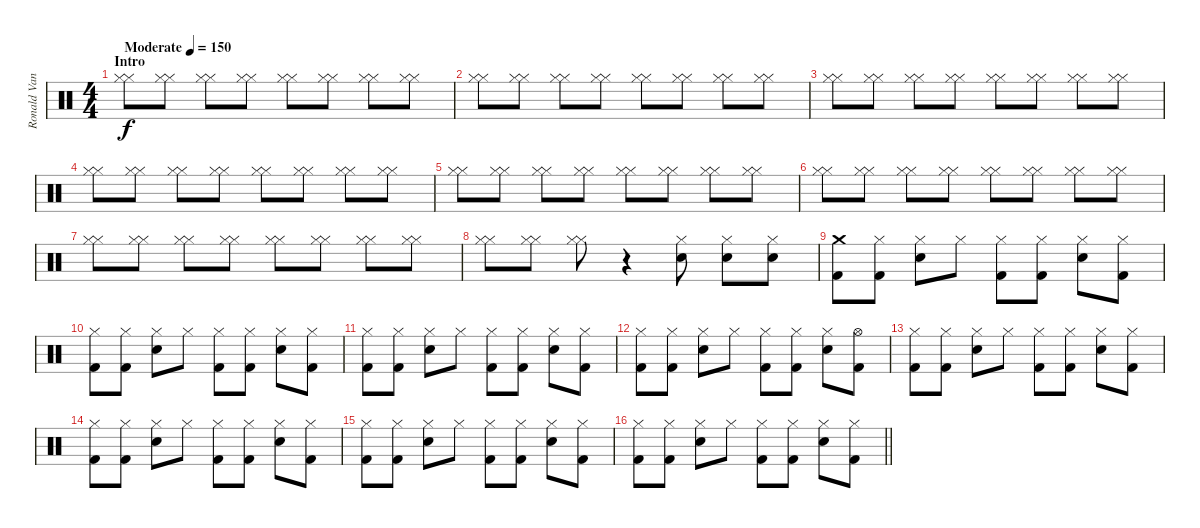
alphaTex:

\track ("Ronald Vanucci Jr (Drums)" "Ronald Van") {instrument percussion}
\staff {score}
\articulation defaults
\ts (4 4)
\section ("" "Intro")
\tempo (150 "Moderate")
\clef neutral
\ks c
("Hi-Hat (closed)" "Hi-Hat (closed)").8{dy f volume 3} ("Hi-Hat (closed)" "Hi-Hat (closed)").8 ("Hi-Hat (closed)" "Hi-Hat (closed)").8 ("Hi-Hat (closed)" "Hi-Hat (closed)").8 ("Hi-Hat (closed)" "Hi-Hat (closed)").8 ("Hi-Hat (closed)" "Hi-Hat (closed)").8 ("Hi-Hat (closed)" "Hi-Hat (closed)").8 ("Hi-Hat (closed)" "Hi-Hat (closed)").8 |
("Hi-Hat (closed)" "Hi-Hat (closed)").8{volume 6} ("Hi-Hat (closed)" "Hi-Hat (closed)").8 ("Hi-Hat (closed)" "Hi-Hat (closed)").8 ("Hi-Hat (closed)" "Hi-Hat (closed)").8 ("Hi-Hat (closed)" "Hi-Hat (closed)").8 ("Hi-Hat (closed)" "Hi-Hat (closed)").8 ("Hi-Hat (closed)" "Hi-Hat (closed)").8 ("Hi-Hat (closed)" "Hi-Hat (closed)").8 |
("Hi-Hat (closed)" "Hi-Hat (closed)").8{volume 8} ("Hi-Hat (closed)" "Hi-Hat (closed)").8 ("Hi-Hat (closed)" "Hi-Hat (closed)").8 ("Hi-Hat (closed)" "Hi-Hat (closed)").8 ("Hi-Hat (closed)" "Hi-Hat (closed)").8 ("Hi-Hat (closed)" "Hi-Hat (closed)").8 ("Hi-Hat (closed)" "Hi-Hat (closed)").8 ("Hi-Hat (closed)" "Hi-Hat (closed)").8 |
("Hi-Hat (closed)" "Hi-Hat (closed)").8{volume 10} ("Hi-Hat (closed)" "Hi-Hat (closed)").8 ("Hi-Hat (closed)" "Hi-Hat (closed)").8 ("Hi-Hat (closed)" "Hi-Hat (closed)").8 ("Hi-Hat (closed)" "Hi-Hat (closed)").8 ("Hi-Hat (closed)" "Hi-Hat (closed)").8 ("Hi-Hat (closed)" "Hi-Hat (closed)").8 ("Hi-Hat (closed)" "Hi-Hat (closed)").8 |
("Hi-Hat (closed)" "Hi-Hat (closed)").8{volume 12} ("Hi-Hat (closed)" "Hi-Hat (closed)").8 ("Hi-Hat (closed)" "Hi-Hat (closed)").8 ("Hi-Hat (closed)" "Hi-Hat (closed)").8 ("Hi-Hat (closed)" "Hi-Hat (closed)").8 ("Hi-Hat (closed)" "Hi-Hat (closed)").8 ("Hi-Hat (closed)" "Hi-Hat (closed)").8 ("Hi-Hat (closed)" "Hi-Hat (closed)").8 |
("Hi-Hat (closed)" "Hi-Hat (closed)").8{volume 15} ("Hi-Hat (closed)" "Hi-Hat (closed)").8 ("Hi-Hat (closed)" "Hi-Hat (closed)").8 ("Hi-Hat (closed)" "Hi-Hat (closed)").8 ("Hi-Hat (closed)" "Hi-Hat (closed)").8 ("Hi-Hat (closed)" "Hi-Hat (closed)").8 ("Hi-Hat (closed)" "Hi-Hat (closed)").8 ("Hi-Hat (closed)" "Hi-Hat (closed)").8 |
("Hi-Hat (closed)" "Hi-Hat (closed)").8 ("Hi-Hat (closed)" "Hi-Hat (closed)").8 ("Hi-Hat (closed)" "Hi-Hat (closed)").8 ("Hi-Hat (closed)" "Hi-Hat (closed)").8 ("Hi-Hat (closed)" "Hi-Hat (closed)").8 ("Hi-Hat (closed)" "Hi-Hat (closed)").8 ("Hi-Hat (closed)" "Hi-Hat (closed)").8 ("Hi-Hat (closed)" "Hi-Hat (closed)").8 |
("Hi-Hat (closed)" "Hi-Hat (closed)").8 ("Hi-Hat (closed)" "Hi-Hat (closed)").8 ("Hi-Hat (closed)" "Hi-Hat (closed)").8 r.4 ("Hi-Hat (closed)" "Snare (hit) 2").8 ("Hi-Hat (closed)" "Snare (hit) 2").8 ("Hi-Hat (closed)" "Snare (hit) 2").8 |
("Crash medium (hit)" "Kick (hit) 2").8 ("Hi-Hat (closed)" "Kick (hit) 2").8 ("Hi-Hat (closed)" "Snare (hit) 2").8 "Hi-Hat (closed)".8 ("Hi-Hat (closed)" "Kick (hit) 2").8 ("Hi-Hat (closed)" "Kick (hit) 2").8 ("Hi-Hat (closed)" "Snare (hit) 2").8 ("Hi-Hat (closed)" "Kick (hit) 2").8 |
("Hi-Hat (closed)" "Kick (hit) 2").8 ("Hi-Hat (closed)" "Kick (hit) 2").8 ("Hi-Hat (closed)" "Snare (hit) 2").8 "Hi-Hat (closed)".8 ("Hi-Hat (closed)" "Kick (hit) 2").8 ("Hi-Hat (closed)" "Kick (hit) 2").8 ("Hi-Hat (closed)" "Snare (hit) 2").8 ("Hi-Hat (closed)" "Kick (hit) 2").8 |
("Hi-Hat (closed)" "Kick (hit) 2").8 ("Hi-Hat (closed)" "Kick (hit) 2").8 ("Hi-Hat (closed)" "Snare (hit) 2").8 "Hi-Hat (closed)".8 ("Hi-Hat (closed)" "Kick (hit) 2").8 ("Hi-Hat (closed)" "Kick (hit) 2").8 ("Hi-Hat (closed)" "Snare (hit) 2").8 ("Hi-Hat (closed)" "Kick (hit) 2").8 |
("Hi-Hat (closed)" "Kick (hit) 2").8 ("Hi-Hat (closed)" "Kick (hit) 2").8 ("Hi-Hat (closed)" "Snare (hit) 2").8 "Hi-Hat (closed)".8 ("Hi-Hat (closed)" "Kick (hit) 2").8 ("Hi-Hat (closed)" "Kick (hit) 2").8 ("Hi-Hat (closed)" "Snare (hit) 2").8 ("Hi-Hat (open)" "Kick (hit) 2").8 |
("Hi-Hat (closed)" "Kick (hit) 2").8 ("Hi-Hat (closed)" "Kick (hit) 2").8 ("Hi-Hat (closed)" "Snare (hit) 2").8 "Hi-Hat (closed)".8 ("Hi-Hat (closed)" "Kick (hit) 2").8 ("Hi-Hat (closed)" "Kick (hit) 2").8 ("Hi-Hat (closed)" "Snare (hit) 2").8 ("Hi-Hat (closed)" "Kick (hit) 2").8 |
("Hi-Hat (closed)" "Kick (hit) 2").8 ("Hi-Hat (closed)" "Kick (hit) 2").8 ("Hi-Hat (closed)" "Snare (hit) 2").8 "Hi-Hat (closed)".8 ("Hi-Hat (closed)" "Kick (hit) 2").8 ("Hi-Hat (closed)" "Kick (hit) 2").8 ("Hi-Hat (closed)" "Snare (hit) 2").8 ("Hi-Hat (closed)" "Kick (hit) 2").8 |
("Hi-Hat (closed)" "Kick (hit) 2").8 ("Hi-Hat (closed)" "Kick (hit) 2").8 ("Hi-Hat (closed)" "Snare (hit) 2").8 "Hi-Hat (closed)".8 ("Hi-Hat (closed)" "Kick (hit) 2").8 ("Hi-Hat (closed)" "Kick (hit) 2").8 ("Hi-Hat (closed)" "Snare (hit) 2").8 ("Hi-Hat (closed)" "Kick (hit) 2").8 |
\barLineRight lightlight
("Hi-Hat (closed)" "Kick (hit) 2").8 ("Hi-Hat (closed)" "Kick (hit) 2").8 ("Hi-Hat (closed)" "Snare (hit) 2").8 "Hi-Hat (closed)".8 ("Hi-Hat (closed)" "Kick (hit) 2").8 ("Hi-Hat (closed)" "Kick (hit) 2").8 ("Hi-Hat (closed)" "Snare (hit) 2").8 ("Hi-Hat (closed)" "Kick (hit) 2").8
